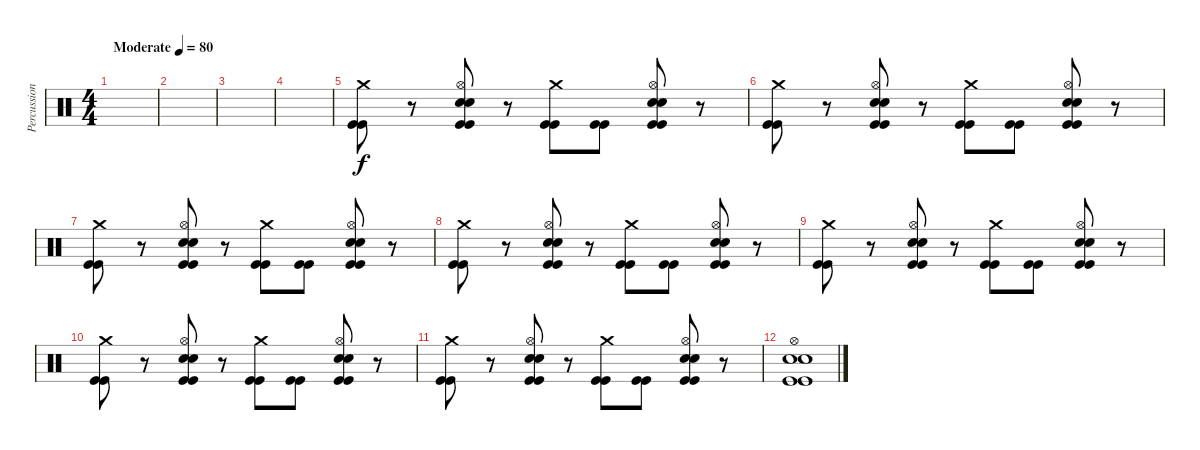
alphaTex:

\track ("Percussion" "Percussion") {instrument percussion}
\staff {score}
\articulation defaults
\ts (4 4)
\tempo (80 "Moderate")
\clef neutral
\ks c
|
|
|
|
("Crash medium (hit)" "Kick (hit)" "Kick (hit)").8 r.8 ("Hi-Hat (open)" "Kick (hit)" "Kick (hit)" "Electric Snare (hit)" "Electric Snare (hit)").8 r.8 ("Crash medium (hit)" "Kick (hit)" "Kick (hit)").8 ("Kick (hit)" "Kick (hit)").8 ("Hi-Hat (open)" "Kick (hit)" "Kick (hit)" "Electric Snare (hit)" "Electric Snare (hit)").8 r.8 |
("Crash medium (hit)" "Kick (hit)" "Kick (hit)").8 r.8 ("Hi-Hat (open)" "Kick (hit)" "Kick (hit)" "Electric Snare (hit)" "Electric Snare (hit)").8 r.8 ("Crash medium (hit)" "Kick (hit)" "Kick (hit)").8 ("Kick (hit)" "Kick (hit)").8 ("Hi-Hat (open)" "Kick (hit)" "Kick (hit)" "Electric Snare (hit)" "Electric Snare (hit)").8 r.8 |
("Crash medium (hit)" "Kick (hit)" "Kick (hit)").8 r.8 ("Hi-Hat (open)" "Kick (hit)" "Kick (hit)" "Electric Snare (hit)" "Electric Snare (hit)").8 r.8 ("Crash medium (hit)" "Kick (hit)" "Kick (hit)").8 ("Kick (hit)" "Kick (hit)").8 ("Hi-Hat (open)" "Kick (hit)" "Kick (hit)" "Electric Snare (hit)" "Electric Snare (hit)").8 r.8 |
("Crash medium (hit)" "Kick (hit)" "Kick (hit)").8 r.8 ("Hi-Hat (open)" "Kick (hit)" "Kick (hit)" "Electric Snare (hit)" "Electric Snare (hit)").8 r.8 ("Crash medium (hit)" "Kick (hit)" "Kick (hit)").8 ("Kick (hit)" "Kick (hit)").8 ("Hi-Hat (open)" "Kick (hit)" "Kick (hit)" "Electric Snare (hit)" "Electric Snare (hit)").8 r.8 |
("Crash medium (hit)" "Kick (hit)" "Kick (hit)").8 r.8 ("Hi-Hat (open)" "Kick (hit)" "Kick (hit)" "Electric Snare (hit)" "Electric Snare (hit)").8 r.8 ("Crash medium (hit)" "Kick (hit)" "Kick (hit)").8 ("Kick (hit)" "Kick (hit)").8 ("Hi-Hat (open)" "Kick (hit)" "Kick (hit)" "Electric Snare (hit)" "Electric Snare (hit)").8 r.8 |
("Crash medium (hit)" "Kick (hit)" "Kick (hit)").8 r.8 ("Hi-Hat (open)" "Kick (hit)" "Kick (hit)" "Electric Snare (hit)" "Electric Snare (hit)").8 r.8 ("Crash medium (hit)" "Kick (hit)" "Kick (hit)").8 ("Kick (hit)" "Kick (hit)").8 ("Hi-Hat (open)" "Kick (hit)" "Kick (hit)" "Electric Snare (hit)" "Electric Snare (hit)").8 r.8 |
("Crash medium (hit)" "Kick (hit)" "Kick (hit)").8 r.8 ("Hi-Hat (open)" "Kick (hit)" "Kick (hit)" "Electric Snare (hit)" "Electric Snare (hit)").8 r.8 ("Crash medium (hit)" "Kick (hit)" "Kick (hit)").8 ("Kick (hit)" "Kick (hit)").8 ("Hi-Hat (open)" "Kick (hit)" "Kick (hit)" "Electric Snare (hit)" "Electric Snare (hit)").8 r.8 |
("Hi-Hat (open)" "Kick (hit)" "Kick (hit)" "Electric Snare (hit)" "Electric Snare (hit)").1
